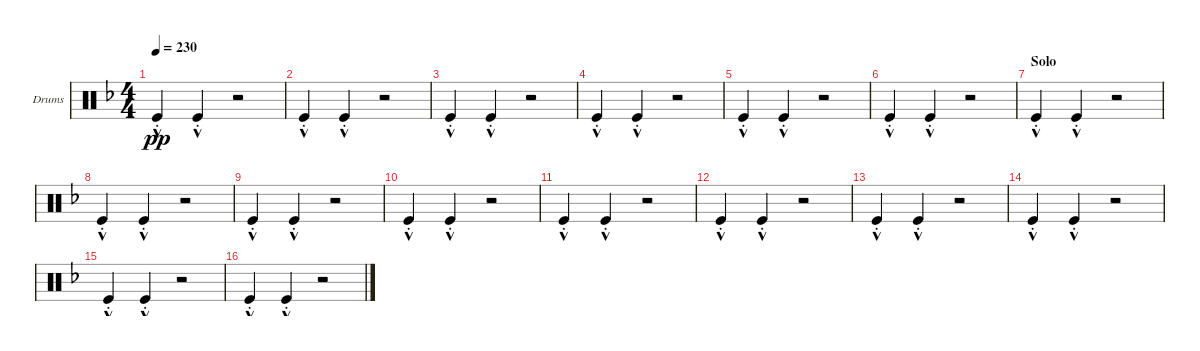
\defaultSystemsLayout 4
\bracketExtendMode groupsimilarinstruments
\firstSystemTrackNameOrientation horizontal
\otherSystemsTrackNameOrientation horizontal
\track ("Drumkit" "Drums") {instrument percussion}
\staff {score}
\articulation defaults
\ts (4 4)
\tempo 230
\clef neutral
\ks dminor "Kick (hit)"{hac st}.4{dy pp} "Kick (hit)"{hac st}.4
r.2 |
"Kick (hit)"{hac st}.4 "Kick (hit)"{hac st}.4 r.2 |
"Kick (hit)"{hac st}.4 "Kick (hit)"{hac st}.4 r.2 |
"Kick (hit)"{hac st}.4 "Kick (hit)"{hac st}.4 r.2 |
"Kick (hit)"{hac st}.4 "Kick (hit)"{hac st}.4 r.2 |
"Kick (hit)"{hac st}.4 "Kick (hit)"{hac st}.4 r.2 |
\section ("" "Solo")
"Kick (hit)"{hac st}.4 "Kick (hit)"{hac st}.4 r.2 |
"Kick (hit)"{hac st}.4 "Kick (hit)"{hac st}.4 r.2 |
"Kick (hit)"{hac st}.4 "Kick (hit)"{hac st}.4 r.2 |
"Kick (hit)"{hac st}.4 "Kick (hit)"{hac st}.4 r.2 |
"Kick (hit)"{hac st}.4 "Kick (hit)"{hac st}.4 r.2 |
"Kick (hit)"{hac st}.4 "Kick (hit)"{hac st}.4 r.2 |
"Kick (hit)"{hac st}.4 "Kick (hit)"{hac st}.4 r.2 |
"Kick (hit)"{hac st}.4 "Kick (hit)"{hac st}.4 r.2 |
"Kick (hit)"{hac st}.4 "Kick (hit)"{hac st}.4 r.2 |
"Kick (hit)"{hac st}.4 "Kick (hit)"{hac st}.4 r.2
